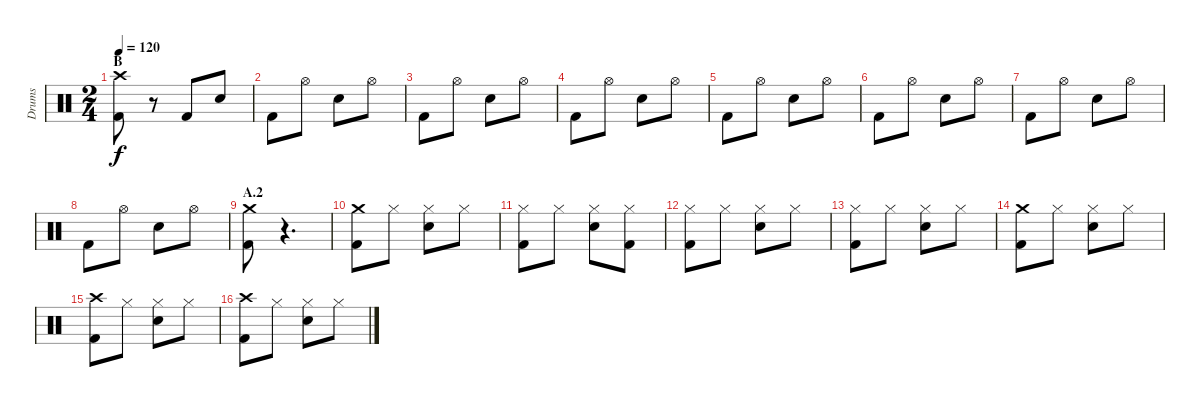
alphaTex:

\track ("Drums" "Drums") {instrument percussion}
\staff {score}
\articulation defaults
\ts (2 4)
\section ("" "B")
\tempo 120
\clef neutral
\ks c
("Crash high (hit)" "Kick (hit) 2").8{dy f} r.8 "Kick (hit) 2".8 "Snare (hit) 2".8 |
"Kick (hit) 2".8 "Hi-Hat (open)".8 "Snare (hit) 2".8 "Hi-Hat (open)".8 |
"Kick (hit) 2".8 "Hi-Hat (open)".8 "Snare (hit) 2".8 "Hi-Hat (open)".8 |
"Kick (hit) 2".8 "Hi-Hat (open)".8 "Snare (hit) 2".8 "Hi-Hat (open)".8 |
"Kick (hit) 2".8 "Hi-Hat (open)".8 "Snare (hit) 2".8 "Hi-Hat (open)".8 |
"Kick (hit) 2".8 "Hi-Hat (open)".8 "Snare (hit) 2".8 "Hi-Hat (open)".8 |
"Kick (hit) 2".8 "Hi-Hat (open)".8 "Snare (hit) 2".8 "Hi-Hat (open)".8 |
"Kick (hit) 2".8 "Hi-Hat (open)".8 "Snare (hit) 2".8 "Hi-Hat (open)".8 |
\section ("" "A.2")
("Crash medium (hit)" "Kick (hit) 2").8 r.4{d} |
("Crash medium (hit)" "Kick (hit) 2").8 "Hi-Hat (closed)".8 ("Snare (hit) 2" "Hi-Hat (closed)").8 "Hi-Hat (closed)".8 |
("Hi-Hat (closed)" "Kick (hit) 2").8 "Hi-Hat (closed)".8 ("Snare (hit) 2" "Hi-Hat (closed)").8 ("Kick (hit) 2" "Hi-Hat (closed)").8 |
("Kick (hit) 2" "Hi-Hat (closed)").8 "Hi-Hat (closed)".8 ("Snare (hit) 2" "Hi-Hat (closed)").8 "Hi-Hat (closed)".8 |
("Kick (hit) 2" "Hi-Hat (closed)").8 "Hi-Hat (closed)".8 ("Snare (hit) 2" "Hi-Hat (closed)").8 "Hi-Hat (closed)".8 |
("Crash medium (hit)" "Kick (hit) 2").8 "Hi-Hat (closed)".8 ("Snare (hit) 2" "Hi-Hat (closed)").8 "Hi-Hat (closed)".8 |
("Crash high (hit)" "Kick (hit) 2").8 "Hi-Hat (closed)".8 ("Snare (hit) 2" "Hi-Hat (closed)").8 "Hi-Hat (closed)".8 |
("Crash high (hit)" "Kick (hit) 2").8 "Hi-Hat (closed)".8 ("Snare (hit) 2" "Hi-Hat (closed)").8 "Hi-Hat (closed)".8
